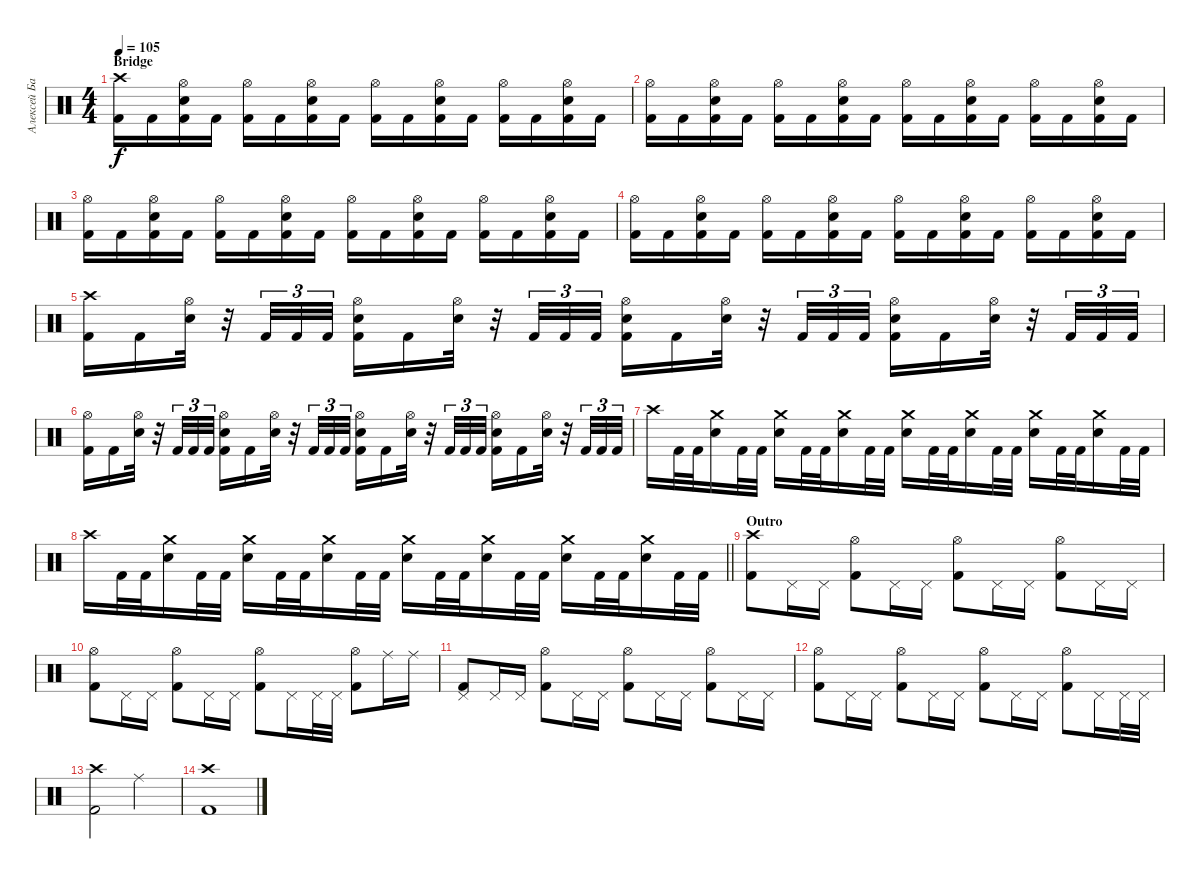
\track ("Алексей Барзилович" "Алексей Ба") {instrument percussion}
\staff {score}
\articulation defaults
\ts (4 4)
\section ("" "Bridge")
\tempo 105
\clef neutral
\ks c
("Crash high (hit)" "Kick (hit) 2").16{dy f} "Kick (hit) 2".16 ("Hi-Hat (open)" "Electric Snare (hit)" "Kick (hit) 2").16 "Kick (hit) 2".16 ("Hi-Hat (open)" "Kick (hit) 2").16 "Kick (hit) 2".16 ("Hi-Hat (open)" "Electric Snare (hit)" "Kick (hit) 2").16 "Kick (hit) 2".16 ("Hi-Hat (open)" "Kick (hit) 2").16 "Kick (hit) 2".16 ("Hi-Hat (open)" "Electric Snare (hit)" "Kick (hit) 2").16 "Kick (hit) 2".16 ("Hi-Hat (open)" "Kick (hit) 2").16 "Kick (hit) 2".16 ("Hi-Hat (open)" "Electric Snare (hit)" "Kick (hit) 2").16 "Kick (hit) 2".16 |
("Hi-Hat (open)" "Kick (hit) 2").16 "Kick (hit) 2".16 ("Hi-Hat (open)" "Electric Snare (hit)" "Kick (hit) 2").16 "Kick (hit) 2".16 ("Hi-Hat (open)" "Kick (hit) 2").16 "Kick (hit) 2".16 ("Hi-Hat (open)" "Electric Snare (hit)" "Kick (hit) 2").16 "Kick (hit) 2".16 ("Hi-Hat (open)" "Kick (hit) 2").16 "Kick (hit) 2".16 ("Hi-Hat (open)" "Electric Snare (hit)" "Kick (hit) 2").16 "Kick (hit) 2".16 ("Hi-Hat (open)" "Kick (hit) 2").16 "Kick (hit) 2".16 ("Hi-Hat (open)" "Electric Snare (hit)" "Kick (hit) 2").16 "Kick (hit) 2".16 |
("Hi-Hat (open)" "Kick (hit) 2").16 "Kick (hit) 2".16 ("Hi-Hat (open)" "Electric Snare (hit)" "Kick (hit) 2").16 "Kick (hit) 2".16 ("Hi-Hat (open)" "Kick (hit) 2").16 "Kick (hit) 2".16 ("Hi-Hat (open)" "Electric Snare (hit)" "Kick (hit) 2").16 "Kick (hit) 2".16 ("Hi-Hat (open)" "Kick (hit) 2").16 "Kick (hit) 2".16 ("Hi-Hat (open)" "Electric Snare (hit)" "Kick (hit) 2").16 "Kick (hit) 2".16 ("Hi-Hat (open)" "Kick (hit) 2").16 "Kick (hit) 2".16 ("Hi-Hat (open)" "Electric Snare (hit)" "Kick (hit) 2").16 "Kick (hit) 2".16 |
("Hi-Hat (open)" "Kick (hit) 2").16 "Kick (hit) 2".16 ("Hi-Hat (open)" "Electric Snare (hit)" "Kick (hit) 2").16 "Kick (hit) 2".16 ("Hi-Hat (open)" "Kick (hit) 2").16 "Kick (hit) 2".16 ("Hi-Hat (open)" "Electric Snare (hit)" "Kick (hit) 2").16 "Kick (hit) 2".16 ("Hi-Hat (open)" "Kick (hit) 2").16 "Kick (hit) 2".16 ("Hi-Hat (open)" "Electric Snare (hit)" "Kick (hit) 2").16 "Kick (hit) 2".16 ("Hi-Hat (open)" "Kick (hit) 2").16 "Kick (hit) 2".16 ("Hi-Hat (open)" "Electric Snare (hit)" "Kick (hit) 2").16 "Kick (hit) 2".16 |
("Crash high (hit)" "Kick (hit) 2").16 "Kick (hit) 2".16 ("Hi-Hat (open)" "Electric Snare (hit)").32 r.32 "Kick (hit) 2".32{tu (3 2)} "Kick (hit) 2".32{tu (3 2)} "Kick (hit) 2".32{tu (3 2)} ("Hi-Hat (open)" "Electric Snare (hit)" "Kick (hit) 2").16 "Kick (hit) 2".16 ("Hi-Hat (open)" "Electric Snare (hit)").32 r.32 "Kick (hit) 2".32{tu (3 2)} "Kick (hit) 2".32{tu (3 2)} "Kick (hit) 2".32{tu (3 2)} ("Hi-Hat (open)" "Electric Snare (hit)" "Kick (hit) 2").16 "Kick (hit) 2".16 ("Hi-Hat (open)" "Electric Snare (hit)").32 r.32 "Kick (hit) 2".32{tu (3 2)} "Kick (hit) 2".32{tu (3 2)} "Kick (hit) 2".32{tu (3 2)} ("Hi-Hat (open)" "Electric Snare (hit)" "Kick (hit) 2").16 "Kick (hit) 2".16 ("Hi-Hat (open)" "Electric Snare (hit)").32 r.32 "Kick (hit) 2".32{tu (3 2)} "Kick (hit) 2".32{tu (3 2)} "Kick (hit) 2".32{tu (3 2)} |
("Hi-Hat (open)" "Kick (hit) 2").16 "Kick (hit) 2".16 ("Hi-Hat (open)" "Electric Snare (hit)").32 r.32 "Kick (hit) 2".32{tu (3 2)} "Kick (hit) 2".32{tu (3 2)} "Kick (hit) 2".32{tu (3 2)} ("Hi-Hat (open)" "Electric Snare (hit)" "Kick (hit) 2").16 "Kick (hit) 2".16 ("Hi-Hat (open)" "Electric Snare (hit)").32 r.32 "Kick (hit) 2".32{tu (3 2)} "Kick (hit) 2".32{tu (3 2)} "Kick (hit) 2".32{tu (3 2)} ("Hi-Hat (open)" "Electric Snare (hit)" "Kick (hit) 2").16 "Kick (hit) 2".16 ("Hi-Hat (open)" "Electric Snare (hit)").32 r.32 "Kick (hit) 2".32{tu (3 2)} "Kick (hit) 2".32{tu (3 2)} "Kick (hit) 2".32{tu (3 2)} ("Hi-Hat (open)" "Electric Snare (hit)" "Kick (hit) 2").16 "Kick (hit) 2".16 ("Hi-Hat (open)" "Electric Snare (hit)").32 r.32 "Kick (hit) 2".32{tu (3 2)} "Kick (hit) 2".32{tu (3 2)} "Kick (hit) 2".32{tu (3 2)} |
"Crash high (hit)".16 "Kick (hit) 2".32 "Kick (hit) 2".32 ("Crash medium (hit)" "Electric Snare (hit)").16 "Kick (hit) 2".32 "Kick (hit) 2".32 ("Crash medium (hit)" "Electric Snare (hit)").16 "Kick (hit) 2".32 "Kick (hit) 2".32 ("Crash medium (hit)" "Electric Snare (hit)").16 "Kick (hit) 2".32 "Kick (hit) 2".32 ("Crash medium (hit)" "Electric Snare (hit)").16 "Kick (hit) 2".32 "Kick (hit) 2".32 ("Crash medium (hit)" "Electric Snare (hit)").16 "Kick (hit) 2".32 "Kick (hit) 2".32 ("Crash medium (hit)" "Electric Snare (hit)").16 "Kick (hit) 2".32 "Kick (hit) 2".32 ("Crash medium (hit)" "Electric Snare (hit)").16 "Kick (hit) 2".32 "Kick (hit) 2".32 |
\barLineRight lightlight "Crash high (hit)".16 "Kick (hit) 2".32 "Kick (hit) 2".32
("Crash medium (hit)" "Electric Snare (hit)").16 "Kick (hit) 2".32 "Kick (hit) 2".32 ("Crash medium (hit)" "Electric Snare (hit)").16 "Kick (hit) 2".32 "Kick (hit) 2".32 ("Crash medium (hit)" "Electric Snare (hit)").16 "Kick (hit) 2".32 "Kick (hit) 2".32 ("Crash medium (hit)" "Electric Snare (hit)").16 "Kick (hit) 2".32 "Kick (hit) 2".32 ("Crash medium (hit)" "Electric Snare (hit)").16 "Kick (hit) 2".32 "Kick (hit) 2".32 ("Crash medium (hit)" "Electric Snare (hit)").16 "Kick (hit) 2".32 "Kick (hit) 2".32 ("Crash medium (hit)" "Electric Snare (hit)").16 "Kick (hit) 2".32 "Kick (hit) 2".32 |
\section ("" "Outro")
("Crash high (hit)" "Kick (hit) 2").8 "Pedal Hi-Hat (hit)".16 "Pedal Hi-Hat (hit)".16 ("Hi-Hat (open)" "Kick (hit) 2").8 "Pedal Hi-Hat (hit)".16 "Pedal Hi-Hat (hit)".16 ("Hi-Hat (open)" "Kick (hit) 2").8 "Pedal Hi-Hat (hit)".16 "Pedal Hi-Hat (hit)".16 ("Hi-Hat (open)" "Kick (hit) 2").8 "Pedal Hi-Hat (hit)".16 "Pedal Hi-Hat (hit)".16 |
("Hi-Hat (open)" "Kick (hit) 2").8 "Pedal Hi-Hat (hit)".16 "Pedal Hi-Hat (hit)".16 ("Hi-Hat (open)" "Kick (hit) 2").8 "Pedal Hi-Hat (hit)".16 "Pedal Hi-Hat (hit)".16 ("Hi-Hat (open)" "Kick (hit) 2").8 "Pedal Hi-Hat (hit)".16 "Pedal Hi-Hat (hit)".32 "Pedal Hi-Hat (hit)".32 ("Hi-Hat (open)" "Kick (hit) 2").8 "Ride (middle)".16 "Ride (middle)".16 |
("Pedal Hi-Hat (hit)" "Kick (hit) 2").8 "Pedal Hi-Hat (hit)".16 "Pedal Hi-Hat (hit)".16 ("Hi-Hat (open)" "Kick (hit) 2").8 "Pedal Hi-Hat (hit)".16 "Pedal Hi-Hat (hit)".16 ("Hi-Hat (open)" "Kick (hit) 2").8 "Pedal Hi-Hat (hit)".16 "Pedal Hi-Hat (hit)".16 ("Hi-Hat (open)" "Kick (hit) 2").8 "Pedal Hi-Hat (hit)".16 "Pedal Hi-Hat (hit)".16 |
("Hi-Hat (open)" "Kick (hit) 2").8 "Pedal Hi-Hat (hit)".16 "Pedal Hi-Hat (hit)".16 ("Hi-Hat (open)" "Kick (hit) 2").8 "Pedal Hi-Hat (hit)".16 "Pedal Hi-Hat (hit)".16 ("Hi-Hat (open)" "Kick (hit) 2").8 "Pedal Hi-Hat (hit)".16 "Pedal Hi-Hat (hit)".16 ("Hi-Hat (open)" "Kick (hit) 2").8 "Pedal Hi-Hat (hit)".16 "Pedal Hi-Hat (hit)".32 "Pedal Hi-Hat (hit)".32 |
("Crash high (hit)" "Kick (hit) 2").2 "Ride (middle)".2 |
("Crash high (hit)" "Kick (hit) 2").1
